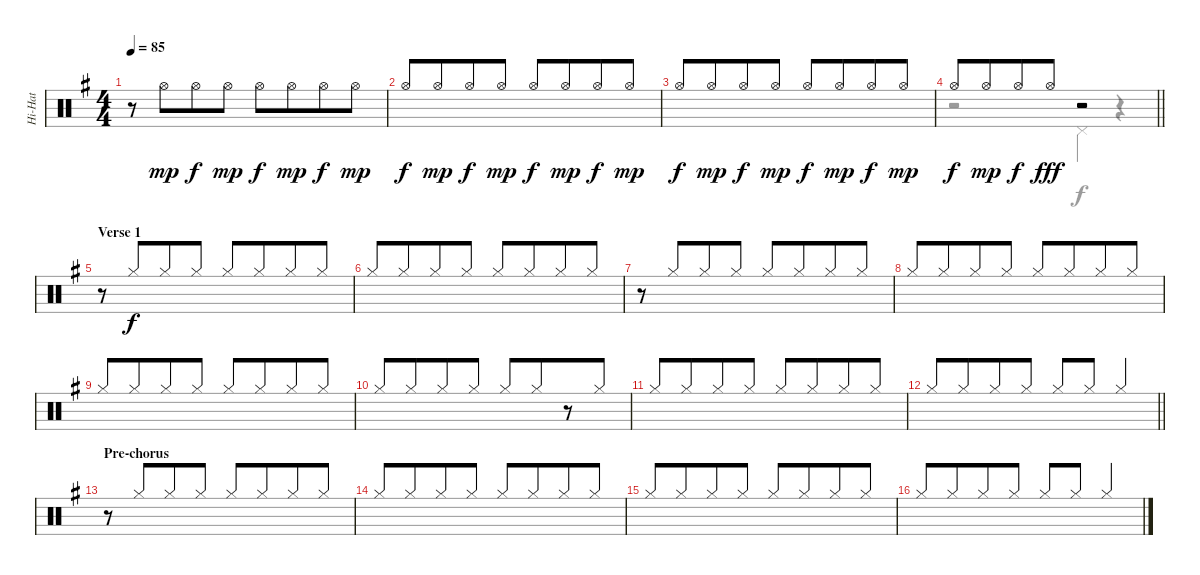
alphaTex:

\track ("Hi-Hat" "Hi-Hat") {instrument percussion}
\staff {score}
\articulation defaults
\voice
\ts (4 4)
\tempo 85
\clef neutral
\ks g
r.8{dy mp} "Hi-Hat (open)".8{beam merge} "Hi-Hat (open)".8{dy f} "Hi-Hat (open)".8{dy mp} "Hi-Hat (open)".8{dy f} "Hi-Hat (open)".8{dy mp beam merge} "Hi-Hat (open)".8{dy f} "Hi-Hat (open)".8{dy mp} |
"Hi-Hat (open)".8{dy f beam Up} "Hi-Hat (open)".8{dy mp beam Up beam merge} "Hi-Hat (open)".8{dy f beam Up} "Hi-Hat (open)".8{dy mp beam Up} "Hi-Hat (open)".8{dy f beam Up} "Hi-Hat (open)".8{dy mp beam Up beam merge} "Hi-Hat (open)".8{dy f beam Up} "Hi-Hat (open)".8{dy mp beam Up} |
"Hi-Hat (open)".8{dy f beam Up} "Hi-Hat (open)".8{dy mp beam Up beam merge} "Hi-Hat (open)".8{dy f beam Up} "Hi-Hat (open)".8{dy mp beam Up} "Hi-Hat (open)".8{dy f beam Up} "Hi-Hat (open)".8{dy mp beam Up beam merge} "Hi-Hat (open)".8{dy f beam Up} "Hi-Hat (open)".8{dy mp beam Up} |
\barLineRight lightlight "Hi-Hat (open)".8{dy f} "Hi-Hat (open)".8{dy mp beam merge} "Hi-Hat (open)".8{dy f} "Hi-Hat (open)".8{dy fff}
r.2 |
\section ("" "Verse 1")
r.8 "Hi-Hat (closed)".8{dy f beam Up beam merge} "Hi-Hat (closed)".8{beam Up} "Hi-Hat (closed)".8{beam Up} "Hi-Hat (closed)".8{beam Up} "Hi-Hat (closed)".8{beam Up beam merge} "Hi-Hat (closed)".8{beam Up} "Hi-Hat (closed)".8{beam Up} |
"Hi-Hat (closed)".8{beam Up} "Hi-Hat (closed)".8{beam Up beam merge} "Hi-Hat (closed)".8{beam Up} "Hi-Hat (closed)".8{beam Up} "Hi-Hat (closed)".8{beam Up} "Hi-Hat (closed)".8{beam Up beam merge} "Hi-Hat (closed)".8{beam Up} "Hi-Hat (closed)".8{beam Up} |
r.8 "Hi-Hat (closed)".8{beam Up beam merge} "Hi-Hat (closed)".8{beam Up} "Hi-Hat (closed)".8{beam Up} "Hi-Hat (closed)".8{beam Up} "Hi-Hat (closed)".8{beam Up beam merge} "Hi-Hat (closed)".8{beam Up} "Hi-Hat (closed)".8{beam Up} |
"Hi-Hat (closed)".8{beam Up} "Hi-Hat (closed)".8{beam Up beam merge} "Hi-Hat (closed)".8{beam Up} "Hi-Hat (closed)".8{beam Up} "Hi-Hat (closed)".8{beam Up} "Hi-Hat (closed)".8{beam Up beam merge} "Hi-Hat (closed)".8{beam Up} "Hi-Hat (closed)".8{beam Up} |
"Hi-Hat (closed)".8{beam Up} "Hi-Hat (closed)".8{beam Up beam merge} "Hi-Hat (closed)".8{beam Up} "Hi-Hat (closed)".8{beam Up} "Hi-Hat (closed)".8{beam Up} "Hi-Hat (closed)".8{beam Up beam merge} "Hi-Hat (closed)".8{beam Up} "Hi-Hat (closed)".8{beam Up} |
"Hi-Hat (closed)".8{beam Up} "Hi-Hat (closed)".8{beam Up beam merge} "Hi-Hat (closed)".8{beam Up} "Hi-Hat (closed)".8{beam Up} "Hi-Hat (closed)".8{beam Up} "Hi-Hat (closed)".8{beam Up beam merge} r.8 "Hi-Hat (closed)".8{beam Up} |
"Hi-Hat (closed)".8{beam Up} "Hi-Hat (closed)".8{beam Up beam merge} "Hi-Hat (closed)".8{beam Up} "Hi-Hat (closed)".8{beam Up} "Hi-Hat (closed)".8{beam Up} "Hi-Hat (closed)".8{beam Up beam merge} "Hi-Hat (closed)".8{beam Up} "Hi-Hat (closed)".8{beam Up} |
\barLineRight lightlight "Hi-Hat (closed)".8{beam Up} "Hi-Hat (closed)".8{beam Up beam merge} "Hi-Hat (closed)".8{beam Up} "Hi-Hat (closed)".8{beam Up} "Hi-Hat (closed)".8{beam Up} "Hi-Hat (closed)".8{beam Up} "Hi-Hat (closed)".4{beam Up}
|
\section ("" "Pre-chorus")
r.8 "Hi-Hat (closed)".8{beam Up beam merge} "Hi-Hat (closed)".8{beam Up} "Hi-Hat (closed)".8{beam Up} "Hi-Hat (closed)".8{beam Up} "Hi-Hat (closed)".8{beam Up beam merge} "Hi-Hat (closed)".8{beam Up} "Hi-Hat (closed)".8{beam Up} |
"Hi-Hat (closed)".8{beam Up} "Hi-Hat (closed)".8{beam Up beam merge} "Hi-Hat (closed)".8{beam Up} "Hi-Hat (closed)".8{beam Up} "Hi-Hat (closed)".8{beam Up} "Hi-Hat (closed)".8{beam Up beam merge} "Hi-Hat (closed)".8{beam Up} "Hi-Hat (closed)".8{beam Up} |
"Hi-Hat (closed)".8{beam Up} "Hi-Hat (closed)".8{beam Up beam merge} "Hi-Hat (closed)".8{beam Up} "Hi-Hat (closed)".8{beam Up} "Hi-Hat (closed)".8{beam Up} "Hi-Hat (closed)".8{beam Up beam merge} "Hi-Hat (closed)".8{beam Up} "Hi-Hat (closed)".8{beam Up} |
"Hi-Hat (closed)".8{beam Up} "Hi-Hat (closed)".8{beam Up beam merge} "Hi-Hat (closed)".8{beam Up} "Hi-Hat (closed)".8{beam Up} "Hi-Hat (closed)".8{beam Up} "Hi-Hat (closed)".8{beam Up} "Hi-Hat (closed)".4{beam Up}
\voice
\clef neutral
\ottava regular
\simile none
\ks g
|
|
|
\barLineRight lightlight
r.2 "Pedal Hi-Hat (hit)".4 r.4 |
|
|
|
|
|
|
|
\barLineRight lightlight
|
|
|
|
